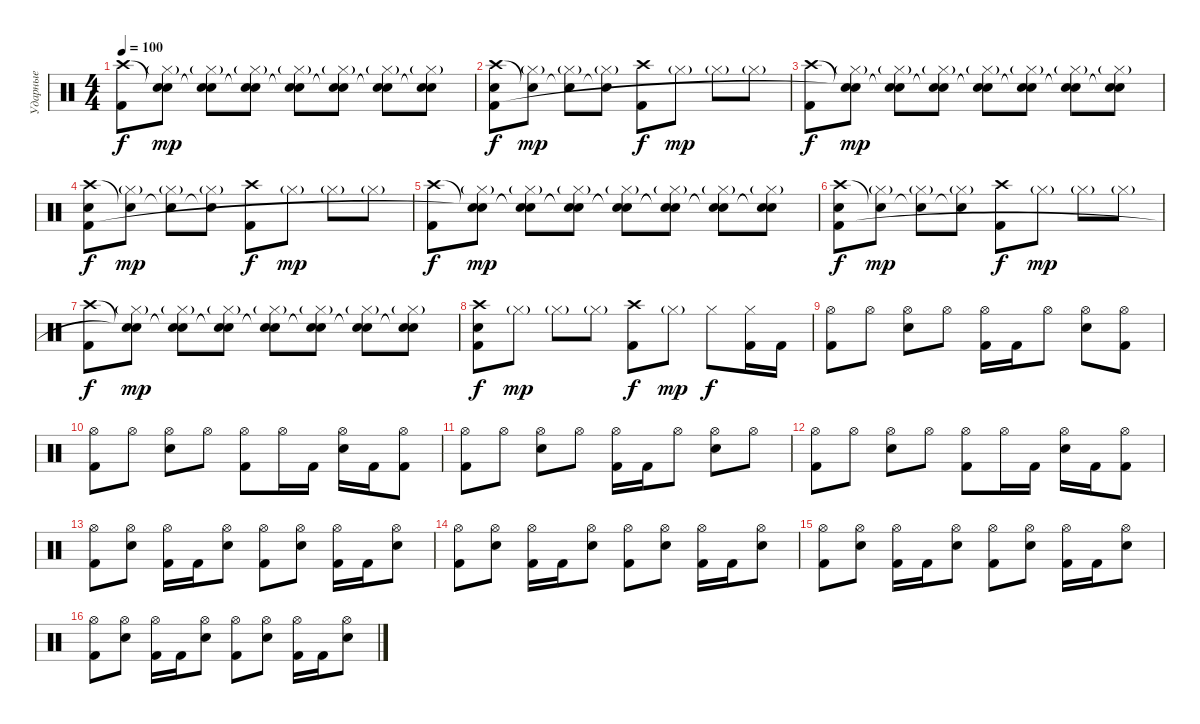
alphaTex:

\track ("Ударные" "Ударные") {instrument percussion}
\staff {score}
\articulation defaults
\ts (4 4)
\tempo 100
\clef neutral
\ks c
("Crash high (hit)" "Kick (hit) 2").8{dy f} ("Snare (hit)"{t} "Hi-Hat (closed)"{g} "Snare (hit)").8{dy mp} ("Snare (hit)"{t} "Hi-Hat (closed)"{g} "Snare (hit)"{t}).8 ("Snare (hit)"{t} "Hi-Hat (closed)"{g} "Snare (hit)"{t}).8 ("Snare (hit)"{t} "Hi-Hat (closed)"{g} "Snare (hit)"{t}).8 ("Snare (hit)"{t} "Hi-Hat (closed)"{g} "Snare (hit)"{t}).8 ("Snare (hit)"{t} "Hi-Hat (closed)"{g} "Snare (hit)"{t}).8 ("Snare (hit)"{t} "Hi-Hat (closed)"{g} "Snare (hit)"{t}).8 |
("Crash high (hit)" "Snare (hit) 2" "Kick (hit) 2").8{dy f} ("Snare (hit)"{t} "Hi-Hat (closed)"{g}).8{dy mp} ("Snare (hit)"{t} "Hi-Hat (closed)"{g}).8 ("Snare (hit)"{t} "Hi-Hat (closed)"{g}).8 ("Crash high (hit)" "Kick (hit) 2").8{dy f} "Hi-Hat (closed)"{g}.8{dy mp} "Hi-Hat (closed)"{g}.8 "Hi-Hat (closed)"{g}.8 |
("Crash high (hit)" "Kick (hit) 2").8{dy f} ("Snare (hit)"{t} "Hi-Hat (closed)"{g} "Snare (hit)"{t}).8{dy mp} ("Snare (hit)"{t} "Hi-Hat (closed)"{g} "Snare (hit)"{t}).8 ("Snare (hit)"{t} "Hi-Hat (closed)"{g} "Snare (hit)"{t}).8 ("Snare (hit)"{t} "Hi-Hat (closed)"{g} "Snare (hit)"{t}).8 ("Snare (hit)"{t} "Hi-Hat (closed)"{g} "Snare (hit)"{t}).8 ("Snare (hit)"{t} "Hi-Hat (closed)"{g} "Snare (hit)"{t}).8 ("Snare (hit)"{t} "Hi-Hat (closed)"{g} "Snare (hit)"{t}).8 |
("Crash high (hit)" "Snare (hit) 2" "Kick (hit) 2").8{dy f} ("Snare (hit)"{t} "Hi-Hat (closed)"{g}).8{dy mp} ("Snare (hit)"{t} "Hi-Hat (closed)"{g}).8 ("Snare (hit)"{t} "Hi-Hat (closed)"{g}).8 ("Crash high (hit)" "Kick (hit) 2").8{dy f} "Hi-Hat (closed)"{g}.8{dy mp} "Hi-Hat (closed)"{g}.8 "Hi-Hat (closed)"{g}.8 |
("Crash high (hit)" "Kick (hit) 2").8{dy f} ("Snare (hit)"{t} "Hi-Hat (closed)"{g} "Snare (hit)"{t}).8{dy mp} ("Snare (hit)"{t} "Hi-Hat (closed)"{g} "Snare (hit)"{t}).8 ("Snare (hit)"{t} "Hi-Hat (closed)"{g} "Snare (hit)"{t}).8 ("Snare (hit)"{t} "Hi-Hat (closed)"{g} "Snare (hit)"{t}).8 ("Snare (hit)"{t} "Hi-Hat (closed)"{g} "Snare (hit)"{t}).8 ("Snare (hit)"{t} "Hi-Hat (closed)"{g} "Snare (hit)"{t}).8 ("Snare (hit)"{t} "Hi-Hat (closed)"{g} "Snare (hit)"{t}).8 |
("Crash high (hit)" "Snare (hit) 2" "Kick (hit) 2").8{dy f} ("Snare (hit)"{t} "Hi-Hat (closed)"{g}).8{dy mp} ("Snare (hit)"{t} "Hi-Hat (closed)"{g}).8 ("Snare (hit)"{t} "Hi-Hat (closed)"{g}).8 ("Crash high (hit)" "Kick (hit) 2").8{dy f} "Hi-Hat (closed)"{g}.8{dy mp} "Hi-Hat (closed)"{g}.8 "Hi-Hat (closed)"{g}.8 |
("Crash high (hit)" "Kick (hit) 2").8{dy f} ("Snare (hit)"{t} "Hi-Hat (closed)"{g} "Snare (hit)"{t}).8{dy mp} ("Snare (hit)"{t} "Hi-Hat (closed)"{g} "Snare (hit)"{t}).8 ("Snare (hit)"{t} "Hi-Hat (closed)"{g} "Snare (hit)"{t}).8 ("Snare (hit)"{t} "Hi-Hat (closed)"{g} "Snare (hit)"{t}).8 ("Snare (hit)"{t} "Hi-Hat (closed)"{g} "Snare (hit)"{t}).8 ("Snare (hit)"{t} "Hi-Hat (closed)"{g} "Snare (hit)"{t}).8 ("Snare (hit)"{t} "Hi-Hat (closed)"{g} "Snare (hit)"{t}).8 |
("Crash high (hit)" "Snare (hit) 2" "Kick (hit) 2").8{dy f} "Hi-Hat (closed)"{g}.8{dy mp} "Hi-Hat (closed)"{g}.8 "Hi-Hat (closed)"{g}.8 ("Crash high (hit)" "Kick (hit) 2").8{dy f} "Hi-Hat (closed)"{g}.8{dy mp} "Hi-Hat (closed)".8{dy f} ("Hi-Hat (closed)" "Kick (hit) 2").16 "Kick (hit) 2".16 |
("Hi-Hat (open)" "Kick (hit) 2").8 "Hi-Hat (open)".8 ("Hi-Hat (open)" "Snare (hit) 2").8 "Hi-Hat (open)".8 ("Hi-Hat (open)" "Kick (hit) 2").16 "Kick (hit) 2".16 "Hi-Hat (open)".8 ("Hi-Hat (open)" "Snare (hit) 2").8 ("Hi-Hat (open)" "Kick (hit) 2").8 |
("Hi-Hat (open)" "Kick (hit) 2").8 "Hi-Hat (open)".8 ("Hi-Hat (open)" "Snare (hit) 2").8 "Hi-Hat (open)".8 ("Hi-Hat (open)" "Kick (hit) 2").8 "Hi-Hat (open)".16 "Kick (hit) 2".16 ("Hi-Hat (open)" "Snare (hit) 2").16 "Kick (hit) 2".16 ("Hi-Hat (open)" "Kick (hit) 2").8 |
("Hi-Hat (open)" "Kick (hit) 2").8 "Hi-Hat (open)".8 ("Hi-Hat (open)" "Snare (hit) 2").8 "Hi-Hat (open)".8 ("Hi-Hat (open)" "Kick (hit) 2").16 "Kick (hit) 2".16 "Hi-Hat (open)".8 ("Hi-Hat (open)" "Snare (hit) 2").8 "Hi-Hat (open)".8 |
("Hi-Hat (open)" "Kick (hit) 2").8 "Hi-Hat (open)".8 ("Hi-Hat (open)" "Snare (hit) 2").8 "Hi-Hat (open)".8 ("Hi-Hat (open)" "Kick (hit) 2").8 "Hi-Hat (open)".16 "Kick (hit) 2".16 ("Hi-Hat (open)" "Snare (hit) 2").16 "Kick (hit) 2".16 ("Hi-Hat (open)" "Kick (hit) 2").8 |
("Hi-Hat (open)" "Kick (hit) 2").8 ("Hi-Hat (open)" "Snare (hit) 2").8 ("Hi-Hat (open)" "Kick (hit) 2").16 "Kick (hit) 2".16 ("Hi-Hat (open)" "Snare (hit) 2").8 ("Hi-Hat (open)" "Kick (hit) 2").8 ("Hi-Hat (open)" "Snare (hit) 2").8 ("Hi-Hat (open)" "Kick (hit) 2").16 "Kick (hit) 2".16 ("Hi-Hat (open)" "Snare (hit) 2").8 |
("Hi-Hat (open)" "Kick (hit) 2").8 ("Hi-Hat (open)" "Snare (hit) 2").8 ("Hi-Hat (open)" "Kick (hit) 2").16 "Kick (hit) 2".16 ("Hi-Hat (open)" "Snare (hit) 2").8 ("Hi-Hat (open)" "Kick (hit) 2").8 ("Hi-Hat (open)" "Snare (hit) 2").8 ("Hi-Hat (open)" "Kick (hit) 2").16 "Kick (hit) 2".16 ("Hi-Hat (open)" "Snare (hit) 2").8 |
("Hi-Hat (open)" "Kick (hit) 2").8 ("Hi-Hat (open)" "Snare (hit) 2").8 ("Hi-Hat (open)" "Kick (hit) 2").16 "Kick (hit) 2".16 ("Hi-Hat (open)" "Snare (hit) 2").8 ("Hi-Hat (open)" "Kick (hit) 2").8 ("Hi-Hat (open)" "Snare (hit) 2").8 ("Hi-Hat (open)" "Kick (hit) 2").16 "Kick (hit) 2".16 ("Hi-Hat (open)" "Snare (hit) 2").8 |
("Hi-Hat (open)" "Kick (hit) 2").8 ("Hi-Hat (open)" "Snare (hit) 2").8 ("Hi-Hat (open)" "Kick (hit) 2").16 "Kick (hit) 2".16 ("Hi-Hat (open)" "Snare (hit) 2").8 ("Hi-Hat (open)" "Kick (hit) 2").8 ("Hi-Hat (open)" "Snare (hit) 2").8 ("Hi-Hat (open)" "Kick (hit) 2").16 "Kick (hit) 2".16 ("Hi-Hat (open)" "Snare (hit) 2").8
